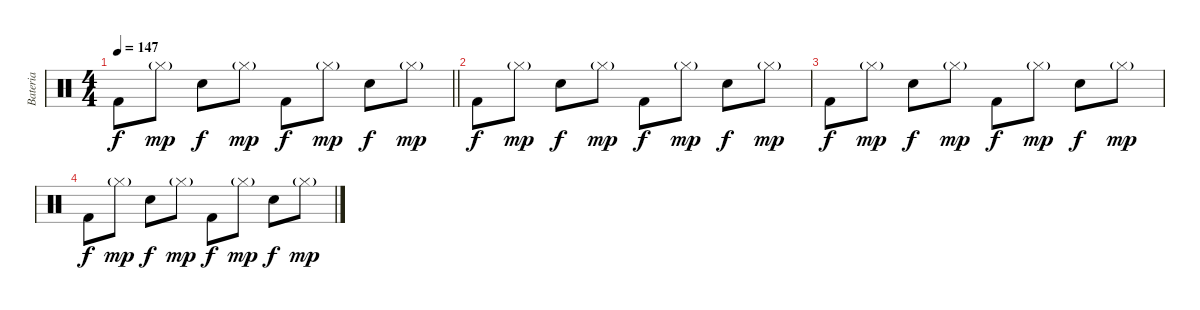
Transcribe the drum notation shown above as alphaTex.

\track ("Bateria" "Bateria") {instrument percussion}
\staff {score}
\articulation defaults
\ts (4 4)
\tempo 147
\clef neutral
\barLineRight lightlight
\ks c "Kick (hit) 2".8{dy f} "Hi-Hat (closed)"{g}.8{dy mp} "Electric Snare (hit)".8{dy f} "Hi-Hat (closed)"{g}.8{dy mp} "Kick (hit) 2".8{dy f} "Hi-Hat (closed)"{g}.8{dy mp} "Electric Snare (hit)".8{dy f} "Hi-Hat (closed)"{g}.8{dy mp}
|
"Kick (hit) 2".8{dy f} "Hi-Hat (closed)"{g}.8{dy mp} "Electric Snare (hit)".8{dy f} "Hi-Hat (closed)"{g}.8{dy mp} "Kick (hit) 2".8{dy f} "Hi-Hat (closed)"{g}.8{dy mp} "Electric Snare (hit)".8{dy f} "Hi-Hat (closed)"{g}.8{dy mp} |
"Kick (hit) 2".8{dy f} "Hi-Hat (closed)"{g}.8{dy mp} "Electric Snare (hit)".8{dy f} "Hi-Hat (closed)"{g}.8{dy mp} "Kick (hit) 2".8{dy f} "Hi-Hat (closed)"{g}.8{dy mp} "Electric Snare (hit)".8{dy f} "Hi-Hat (closed)"{g}.8{dy mp} |
"Kick (hit) 2".8{dy f} "Hi-Hat (closed)"{g}.8{dy mp} "Electric Snare (hit)".8{dy f} "Hi-Hat (closed)"{g}.8{dy mp} "Kick (hit) 2".8{dy f} "Hi-Hat (closed)"{g}.8{dy mp} "Electric Snare (hit)".8{dy f} "Hi-Hat (closed)"{g}.8{dy mp}
